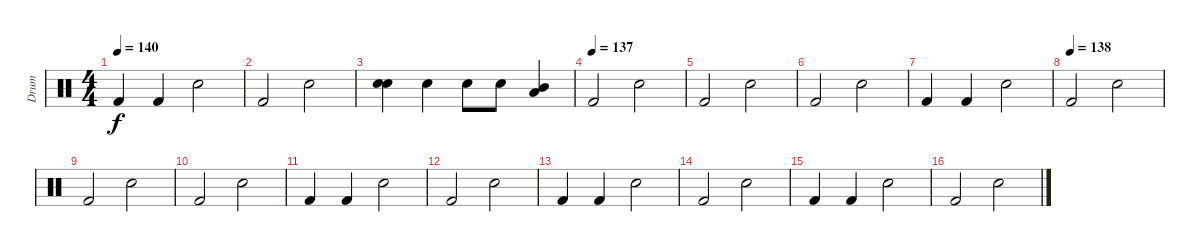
\track ("Drum" "Drum") {instrument percussion}
\staff {score}
\articulation defaults
\ts (4 4)
\tempo 140
\clef neutral
\ks c "Kick (hit) 2".4{dy f} "Kick (hit) 2".4 "Electric Snare (hit)".2
|
"Kick (hit) 2".2 "Electric Snare (hit)".2 |
("Electric Snare (hit)" "Electric Snare (hit)").4{bd 240} "Electric Snare (hit)".4 "Electric Snare (hit)".8 "Electric Snare (hit)".8 ("Low Floor Tom (hit)" "Mid Tom (hit)").4 |
\tempo (137)
"Kick (hit) 2".2 "Electric Snare (hit)".2 |
"Kick (hit) 2".2 "Electric Snare (hit)".2 |
"Kick (hit) 2".2 "Electric Snare (hit)".2 |
"Kick (hit) 2".4 "Kick (hit) 2".4 "Electric Snare (hit)".2 |
\tempo (138)
"Kick (hit) 2".2 "Electric Snare (hit)".2 |
"Kick (hit) 2".2 "Electric Snare (hit)".2 |
"Kick (hit) 2".2 "Electric Snare (hit)".2 |
"Kick (hit) 2".4 "Kick (hit) 2".4 "Electric Snare (hit)".2 |
"Kick (hit) 2".2 "Electric Snare (hit)".2 |
"Kick (hit) 2".4 "Kick (hit) 2".4 "Electric Snare (hit)".2 |
"Kick (hit) 2".2 "Electric Snare (hit)".2 |
"Kick (hit) 2".4 "Kick (hit) 2".4 "Electric Snare (hit)".2 |
"Kick (hit) 2".2 "Electric Snare (hit)".2
